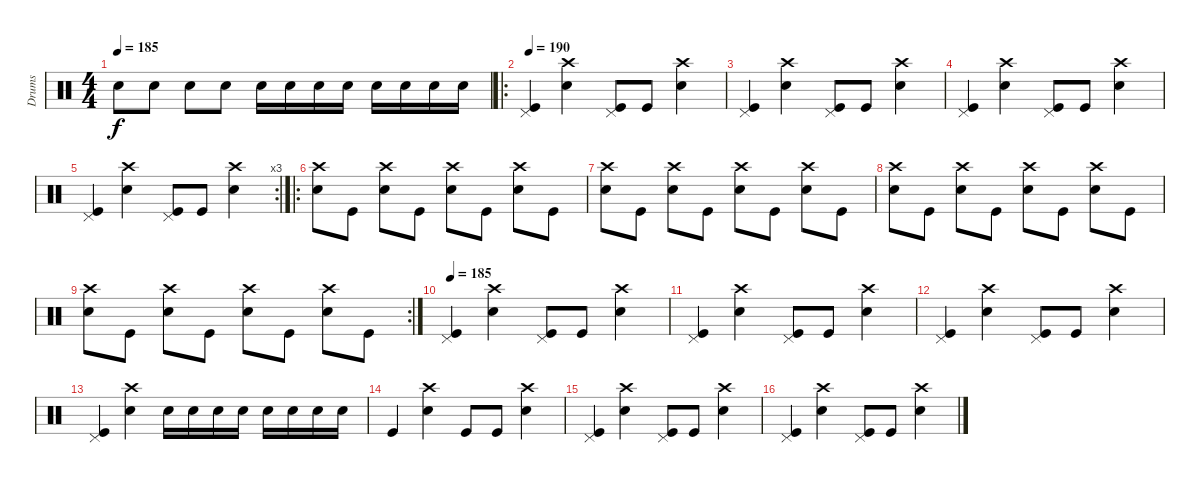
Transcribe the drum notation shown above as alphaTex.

\track ("Drums" "Drums") {instrument percussion}
\staff {score}
\articulation defaults
\ts (4 4)
\tempo 185
\clef neutral
\ks c "Electric Snare (hit)".8{dy f} "Electric Snare (hit)".8 "Electric Snare (hit)".8 "Electric Snare (hit)".8 "Electric Snare (hit)".16 "Electric Snare (hit)".16 "Electric Snare (hit)".16 "Electric Snare (hit)".16 "Electric Snare (hit)".16 "Electric Snare (hit)".16 "Electric Snare (hit)".16 "Electric Snare (hit)".16
|
\ro
\tempo 190
("Pedal Hi-Hat (hit)" "Kick (hit)").4 ("Crash high (hit)" "Electric Snare (hit)").4 ("Pedal Hi-Hat (hit)" "Kick (hit)").8 "Kick (hit)".8 ("Crash high (hit)" "Electric Snare (hit)").4 |
("Pedal Hi-Hat (hit)" "Kick (hit)").4 ("Crash high (hit)" "Electric Snare (hit)").4 ("Pedal Hi-Hat (hit)" "Kick (hit)").8 "Kick (hit)".8 ("Crash high (hit)" "Electric Snare (hit)").4 |
("Pedal Hi-Hat (hit)" "Kick (hit)").4 ("Crash high (hit)" "Electric Snare (hit)").4 ("Pedal Hi-Hat (hit)" "Kick (hit)").8 "Kick (hit)".8 ("Crash high (hit)" "Electric Snare (hit)").4 |
\rc 3
("Pedal Hi-Hat (hit)" "Kick (hit)").4 ("Crash high (hit)" "Electric Snare (hit)").4 ("Pedal Hi-Hat (hit)" "Kick (hit)").8 "Kick (hit)".8 ("Crash high (hit)" "Electric Snare (hit)").4 |
\ro
("Crash high (hit)" "Electric Snare (hit)").8 "Kick (hit)".8 ("Crash high (hit)" "Electric Snare (hit)").8 "Kick (hit)".8 ("Crash high (hit)" "Electric Snare (hit)").8 "Kick (hit)".8 ("Crash high (hit)" "Electric Snare (hit)").8 "Kick (hit)".8 |
("Crash high (hit)" "Electric Snare (hit)").8 "Kick (hit)".8 ("Crash high (hit)" "Electric Snare (hit)").8 "Kick (hit)".8 ("Crash high (hit)" "Electric Snare (hit)").8 "Kick (hit)".8 ("Crash high (hit)" "Electric Snare (hit)").8 "Kick (hit)".8 |
("Crash high (hit)" "Electric Snare (hit)").8 "Kick (hit)".8 ("Crash high (hit)" "Electric Snare (hit)").8 "Kick (hit)".8 ("Crash high (hit)" "Electric Snare (hit)").8 "Kick (hit)".8 ("Crash high (hit)" "Electric Snare (hit)").8 "Kick (hit)".8 |
\rc 2
("Crash high (hit)" "Electric Snare (hit)").8 "Kick (hit)".8 ("Crash high (hit)" "Electric Snare (hit)").8 "Kick (hit)".8 ("Crash high (hit)" "Electric Snare (hit)").8 "Kick (hit)".8 ("Crash high (hit)" "Electric Snare (hit)").8 "Kick (hit)".8 |
\tempo 185
("Pedal Hi-Hat (hit)" "Kick (hit)").4 ("Crash high (hit)" "Electric Snare (hit)").4 ("Pedal Hi-Hat (hit)" "Kick (hit)").8 "Kick (hit)".8 ("Crash high (hit)" "Electric Snare (hit)").4 |
("Pedal Hi-Hat (hit)" "Kick (hit)").4 ("Crash high (hit)" "Electric Snare (hit)").4 ("Pedal Hi-Hat (hit)" "Kick (hit)").8 "Kick (hit)".8 ("Crash high (hit)" "Electric Snare (hit)").4 |
("Pedal Hi-Hat (hit)" "Kick (hit)").4 ("Crash high (hit)" "Electric Snare (hit)").4 ("Pedal Hi-Hat (hit)" "Kick (hit)").8 "Kick (hit)".8 ("Crash high (hit)" "Electric Snare (hit)").4 |
("Pedal Hi-Hat (hit)" "Kick (hit)").4 ("Crash high (hit)" "Electric Snare (hit)").4 "Electric Snare (hit)".16 "Electric Snare (hit)".16 "Electric Snare (hit)".16 "Electric Snare (hit)".16 "Electric Snare (hit)".16 "Electric Snare (hit)".16 "Electric Snare (hit)".16 "Electric Snare (hit)".16 |
"Kick (hit)".4 ("Crash high (hit)" "Electric Snare (hit)").4 "Kick (hit)".8 "Kick (hit)".8 ("Crash high (hit)" "Electric Snare (hit)").4 |
("Pedal Hi-Hat (hit)" "Kick (hit)").4 ("Crash high (hit)" "Electric Snare (hit)").4 ("Pedal Hi-Hat (hit)" "Kick (hit)").8 "Kick (hit)".8 ("Crash high (hit)" "Electric Snare (hit)").4 |
("Pedal Hi-Hat (hit)" "Kick (hit)").4 ("Crash high (hit)" "Electric Snare (hit)").4 ("Pedal Hi-Hat (hit)" "Kick (hit)").8 "Kick (hit)".8 ("Crash high (hit)" "Electric Snare (hit)").4
